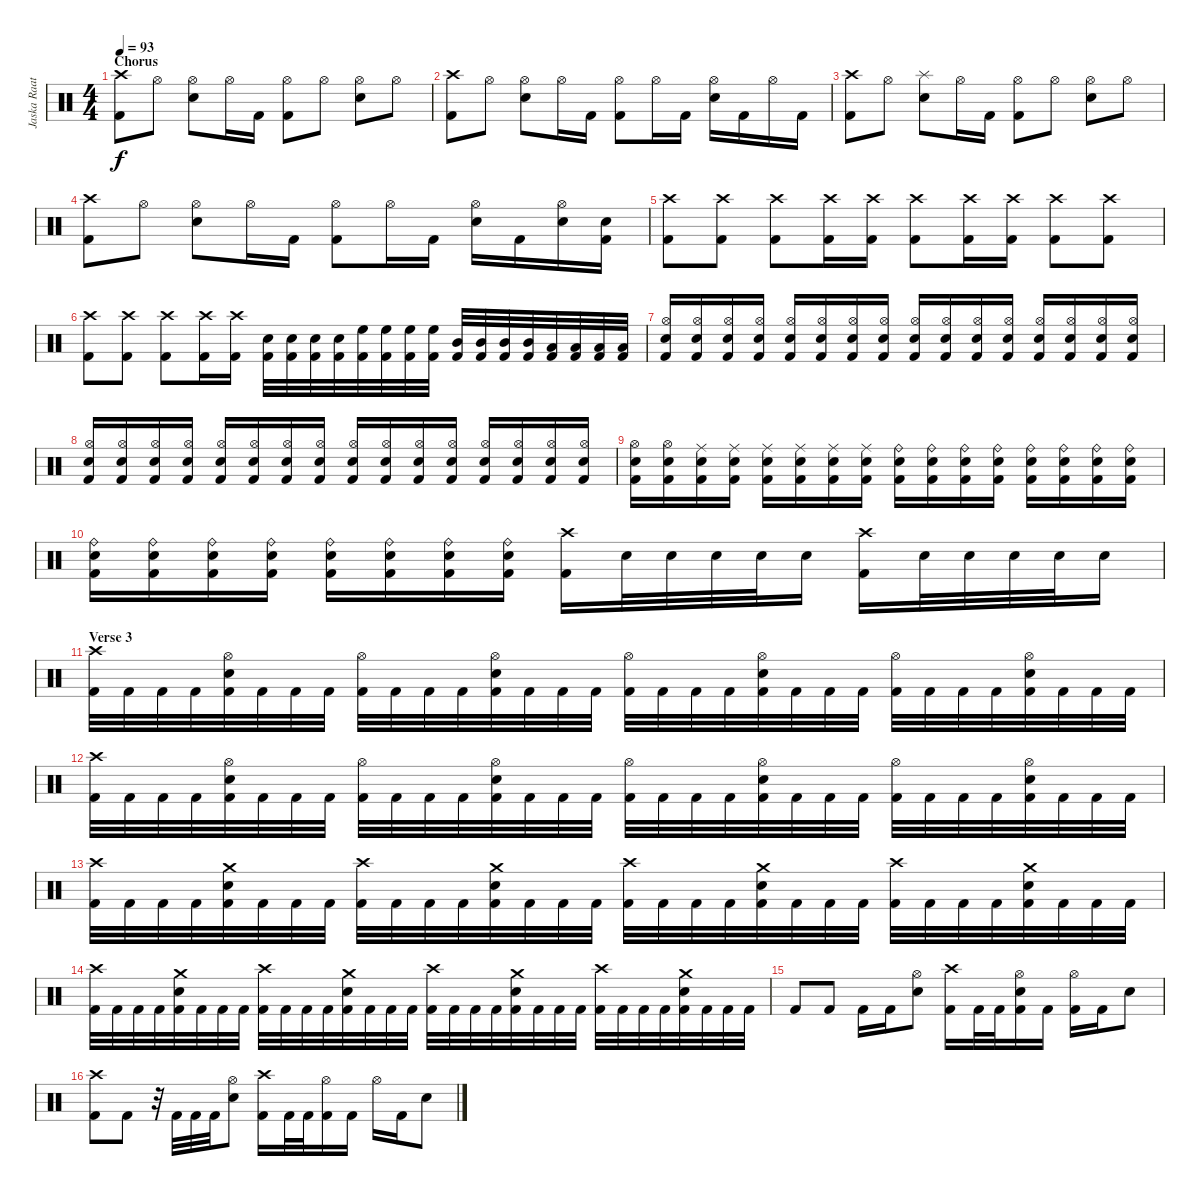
\track ("Jaska Raatikainen" "Jaska Raat") {instrument percussion}
\staff {score}
\articulation defaults
\ts (4 4)
\section ("" "Chorus")
\tempo 93
\clef neutral
\ks c
("Crash high (hit)" "Kick (hit) 2").8{dy f} "Hi-Hat (open)".8 ("Hi-Hat (open)" "Snare (hit) 2").8 "Hi-Hat (open)".16 "Kick (hit) 2".16 ("Hi-Hat (open)" "Kick (hit) 2").8 "Hi-Hat (open)".8 ("Hi-Hat (open)" "Snare (hit) 2").8 "Hi-Hat (open)".8 |
("Crash high (hit)" "Kick (hit) 2").8 "Hi-Hat (open)".8 ("Hi-Hat (open)" "Snare (hit) 2").8 "Hi-Hat (open)".16 "Kick (hit) 2".16 ("Hi-Hat (open)" "Kick (hit) 2").8 "Hi-Hat (open)".16 "Kick (hit) 2".16 ("Hi-Hat (open)" "Snare (hit) 2").16 "Kick (hit) 2".16 "Hi-Hat (open)".16 "Kick (hit) 2".16 |
("Crash high (hit)" "Kick (hit) 2").8 "Hi-Hat (open)".8 ("Splash (hit)" "Snare (hit) 2").8 "Hi-Hat (open)".16 "Kick (hit) 2".16 ("Hi-Hat (open)" "Kick (hit) 2").8 "Hi-Hat (open)".8 ("Hi-Hat (open)" "Snare (hit) 2").8 "Hi-Hat (open)".8 |
("Crash high (hit)" "Kick (hit) 2").8 "Hi-Hat (open)".8 ("Hi-Hat (open)" "Snare (hit) 2").8 "Hi-Hat (open)".16 "Kick (hit) 2".16 ("Hi-Hat (open)" "Kick (hit) 2").8 "Hi-Hat (open)".16 "Kick (hit) 2".16 ("Hi-Hat (open)" "Snare (hit) 2").16 "Kick (hit) 2".16 ("Hi-Hat (open)" "Snare (hit) 2").16 ("Snare (hit) 2" "Kick (hit) 2").16 |
("Crash high (hit)" "Kick (hit) 2").8 ("Crash high (hit)" "Kick (hit) 2").8 ("Crash high (hit)" "Kick (hit) 2").8 ("Crash high (hit)" "Kick (hit) 2").16 ("Crash high (hit)" "Kick (hit) 2").16 ("Crash high (hit)" "Kick (hit) 2").8 ("Crash high (hit)" "Kick (hit) 2").16 ("Crash high (hit)" "Kick (hit) 2").16 ("Crash high (hit)" "Kick (hit) 2").8 ("Crash high (hit)" "Kick (hit) 2").8 |
("Crash high (hit)" "Kick (hit) 2").8 ("Crash high (hit)" "Kick (hit) 2").8 ("Crash high (hit)" "Kick (hit) 2").8 ("Crash high (hit)" "Kick (hit) 2").16 ("Crash high (hit)" "Kick (hit) 2").16 ("Snare (hit) 2" "Kick (hit) 2").32 ("Snare (hit) 2" "Kick (hit) 2").32 ("Snare (hit) 2" "Kick (hit) 2").32 ("Snare (hit) 2" "Kick (hit) 2").32 ("High Floor Tom (hit)" "Kick (hit) 2").32 ("High Floor Tom (hit)" "Kick (hit) 2").32 ("High Floor Tom (hit)" "Kick (hit) 2").32 ("High Floor Tom (hit)" "Kick (hit) 2").32 ("Mid Tom (hit)" "Kick (hit) 2").32 ("Mid Tom (hit)" "Kick (hit) 2").32 ("Mid Tom (hit)" "Kick (hit) 2").32 ("Mid Tom (hit)" "Kick (hit) 2").32 ("Low Tom (hit)" "Kick (hit) 2").32 ("Low Tom (hit)" "Kick (hit) 2").32 ("Low Tom (hit)" "Kick (hit) 2").32 ("Low Tom (hit)" "Kick (hit) 2").32 |
("Hi-Hat (open)" "Snare (hit) 2" "Kick (hit) 2").16 ("Hi-Hat (open)" "Snare (hit) 2" "Kick (hit) 2").16 ("Hi-Hat (open)" "Snare (hit) 2" "Kick (hit) 2").16 ("Hi-Hat (open)" "Snare (hit) 2" "Kick (hit) 2").16 ("Hi-Hat (open)" "Snare (hit) 2" "Kick (hit) 2").16 ("Hi-Hat (open)" "Snare (hit) 2" "Kick (hit) 2").16 ("Hi-Hat (open)" "Snare (hit) 2" "Kick (hit) 2").16 ("Hi-Hat (open)" "Snare (hit) 2" "Kick (hit) 2").16 ("Hi-Hat (open)" "Snare (hit) 2" "Kick (hit) 2").16 ("Hi-Hat (open)" "Snare (hit) 2" "Kick (hit) 2").16 ("Hi-Hat (open)" "Snare (hit) 2" "Kick (hit) 2").16 ("Hi-Hat (open)" "Snare (hit) 2" "Kick (hit) 2").16 ("Hi-Hat (open)" "Snare (hit) 2" "Kick (hit) 2").16 ("Hi-Hat (open)" "Snare (hit) 2" "Kick (hit) 2").16 ("Hi-Hat (open)" "Snare (hit) 2" "Kick (hit) 2").16 ("Hi-Hat (open)" "Snare (hit) 2" "Kick (hit) 2").16 |
("Hi-Hat (open)" "Snare (hit) 2" "Kick (hit) 2").16 ("Hi-Hat (open)" "Snare (hit) 2" "Kick (hit) 2").16 ("Hi-Hat (open)" "Snare (hit) 2" "Kick (hit) 2").16 ("Hi-Hat (open)" "Snare (hit) 2" "Kick (hit) 2").16 ("Hi-Hat (open)" "Snare (hit) 2" "Kick (hit) 2").16 ("Hi-Hat (open)" "Snare (hit) 2" "Kick (hit) 2").16 ("Hi-Hat (open)" "Snare (hit) 2" "Kick (hit) 2").16 ("Hi-Hat (open)" "Snare (hit) 2" "Kick (hit) 2").16 ("Hi-Hat (open)" "Snare (hit) 2" "Kick (hit) 2").16 ("Hi-Hat (open)" "Snare (hit) 2" "Kick (hit) 2").16 ("Hi-Hat (open)" "Snare (hit) 2" "Kick (hit) 2").16 ("Hi-Hat (open)" "Snare (hit) 2" "Kick (hit) 2").16 ("Hi-Hat (open)" "Snare (hit) 2" "Kick (hit) 2").16 ("Hi-Hat (open)" "Snare (hit) 2" "Kick (hit) 2").16 ("Hi-Hat (open)" "Snare (hit) 2" "Kick (hit) 2").16 ("Hi-Hat (open)" "Snare (hit) 2" "Kick (hit) 2").16 |
("Hi-Hat (open)" "Snare (hit) 2" "Kick (hit) 2").16 ("Hi-Hat (open)" "Snare (hit) 2" "Kick (hit) 2").16 ("Ride (middle)" "Snare (hit) 2" "Kick (hit) 2").16 ("Ride (middle)" "Snare (hit) 2" "Kick (hit) 2").16 ("Ride (middle)" "Snare (hit) 2" "Kick (hit) 2").16 ("Ride (middle)" "Snare (hit) 2" "Kick (hit) 2").16 ("Ride (middle)" "Snare (hit) 2" "Kick (hit) 2").16 ("Ride (middle)" "Snare (hit) 2" "Kick (hit) 2").16 ("Ride (bell)" "Snare (hit) 2" "Kick (hit) 2").16 ("Ride (bell)" "Snare (hit) 2" "Kick (hit) 2").16 ("Ride (bell)" "Snare (hit) 2" "Kick (hit) 2").16 ("Ride (bell)" "Snare (hit) 2" "Kick (hit) 2").16 ("Ride (bell)" "Snare (hit) 2" "Kick (hit) 2").16 ("Ride (bell)" "Snare (hit) 2" "Kick (hit) 2").16 ("Ride (bell)" "Snare (hit) 2" "Kick (hit) 2").16 ("Ride (bell)" "Snare (hit) 2" "Kick (hit) 2").16 |
("Ride (bell)" "Snare (hit) 2" "Kick (hit) 2").16 ("Ride (bell)" "Snare (hit) 2" "Kick (hit) 2").16 ("Ride (bell)" "Snare (hit) 2" "Kick (hit) 2").16 ("Ride (bell)" "Snare (hit) 2" "Kick (hit) 2").16 ("Ride (bell)" "Snare (hit) 2" "Kick (hit) 2").16 ("Ride (bell)" "Snare (hit) 2" "Kick (hit) 2").16 ("Ride (bell)" "Snare (hit) 2" "Kick (hit) 2").16 ("Ride (bell)" "Snare (hit) 2" "Kick (hit) 2").16 ("Crash high (hit)" "Kick (hit) 2").16 "Snare (hit) 2".32 "Snare (hit) 2".32 "Snare (hit) 2".32 "Snare (hit) 2".32 "Snare (hit) 2".16 ("Crash high (hit)" "Kick (hit) 2").16 "Snare (hit) 2".32 "Snare (hit) 2".32 "Snare (hit) 2".32 "Snare (hit) 2".32 "Snare (hit) 2".16 |
\section ("" "Verse 3")
("Crash high (hit)" "Kick (hit) 2").32 "Kick (hit) 2".32 "Kick (hit) 2".32 "Kick (hit) 2".32 ("Hi-Hat (open)" "Snare (hit) 2" "Kick (hit) 2").32 "Kick (hit) 2".32 "Kick (hit) 2".32 "Kick (hit) 2".32 ("Hi-Hat (open)" "Kick (hit) 2").32 "Kick (hit) 2".32 "Kick (hit) 2".32 "Kick (hit) 2".32 ("Hi-Hat (open)" "Snare (hit) 2" "Kick (hit) 2").32 "Kick (hit) 2".32 "Kick (hit) 2".32 "Kick (hit) 2".32 ("Hi-Hat (open)" "Kick (hit) 2").32 "Kick (hit) 2".32 "Kick (hit) 2".32 "Kick (hit) 2".32 ("Hi-Hat (open)" "Snare (hit) 2" "Kick (hit) 2").32 "Kick (hit) 2".32 "Kick (hit) 2".32 "Kick (hit) 2".32 ("Hi-Hat (open)" "Kick (hit) 2").32 "Kick (hit) 2".32 "Kick (hit) 2".32 "Kick (hit) 2".32 ("Hi-Hat (open)" "Snare (hit) 2" "Kick (hit) 2").32 "Kick (hit) 2".32 "Kick (hit) 2".32 "Kick (hit) 2".32 |
("Crash high (hit)" "Kick (hit) 2").32 "Kick (hit) 2".32 "Kick (hit) 2".32 "Kick (hit) 2".32 ("Hi-Hat (open)" "Snare (hit) 2" "Kick (hit) 2").32 "Kick (hit) 2".32 "Kick (hit) 2".32 "Kick (hit) 2".32 ("Hi-Hat (open)" "Kick (hit) 2").32 "Kick (hit) 2".32 "Kick (hit) 2".32 "Kick (hit) 2".32 ("Hi-Hat (open)" "Snare (hit) 2" "Kick (hit) 2").32 "Kick (hit) 2".32 "Kick (hit) 2".32 "Kick (hit) 2".32 ("Hi-Hat (open)" "Kick (hit) 2").32 "Kick (hit) 2".32 "Kick (hit) 2".32 "Kick (hit) 2".32 ("Hi-Hat (open)" "Snare (hit) 2" "Kick (hit) 2").32 "Kick (hit) 2".32 "Kick (hit) 2".32 "Kick (hit) 2".32 ("Hi-Hat (open)" "Kick (hit) 2").32 "Kick (hit) 2".32 "Kick (hit) 2".32 "Kick (hit) 2".32 ("Hi-Hat (open)" "Snare (hit) 2" "Kick (hit) 2").32 "Kick (hit) 2".32 "Kick (hit) 2".32 "Kick (hit) 2".32 |
("Crash high (hit)" "Kick (hit) 2").32 "Kick (hit) 2".32 "Kick (hit) 2".32 "Kick (hit) 2".32 ("Crash medium (hit)" "Snare (hit) 2" "Kick (hit) 2").32 "Kick (hit) 2".32 "Kick (hit) 2".32 "Kick (hit) 2".32 ("Crash high (hit)" "Kick (hit) 2").32 "Kick (hit) 2".32 "Kick (hit) 2".32 "Kick (hit) 2".32 ("Crash medium (hit)" "Snare (hit) 2" "Kick (hit) 2").32 "Kick (hit) 2".32 "Kick (hit) 2".32 "Kick (hit) 2".32 ("Crash high (hit)" "Kick (hit) 2").32 "Kick (hit) 2".32 "Kick (hit) 2".32 "Kick (hit) 2".32 ("Crash medium (hit)" "Snare (hit) 2" "Kick (hit) 2").32 "Kick (hit) 2".32 "Kick (hit) 2".32 "Kick (hit) 2".32 ("Crash high (hit)" "Kick (hit) 2").32 "Kick (hit) 2".32 "Kick (hit) 2".32 "Kick (hit) 2".32 ("Crash medium (hit)" "Snare (hit) 2" "Kick (hit) 2").32 "Kick (hit) 2".32 "Kick (hit) 2".32 "Kick (hit) 2".32 |
("Crash high (hit)" "Kick (hit) 2").32 "Kick (hit) 2".32 "Kick (hit) 2".32 "Kick (hit) 2".32 ("Crash medium (hit)" "Snare (hit) 2" "Kick (hit) 2").32 "Kick (hit) 2".32 "Kick (hit) 2".32 "Kick (hit) 2".32 ("Crash high (hit)" "Kick (hit) 2").32 "Kick (hit) 2".32 "Kick (hit) 2".32 "Kick (hit) 2".32 ("Crash medium (hit)" "Snare (hit) 2" "Kick (hit) 2").32 "Kick (hit) 2".32 "Kick (hit) 2".32 "Kick (hit) 2".32 ("Crash high (hit)" "Kick (hit) 2").32 "Kick (hit) 2".32 "Kick (hit) 2".32 "Kick (hit) 2".32 ("Crash medium (hit)" "Snare (hit) 2" "Kick (hit) 2").32 "Kick (hit) 2".32 "Kick (hit) 2".32 "Kick (hit) 2".32 ("Crash high (hit)" "Kick (hit) 2").32 "Kick (hit) 2".32 "Kick (hit) 2".32 "Kick (hit) 2".32 ("Crash medium (hit)" "Snare (hit) 2" "Kick (hit) 2").32 "Kick (hit) 2".32 "Kick (hit) 2".32 "Kick (hit) 2".32 |
"Kick (hit) 2".8 "Kick (hit) 2".8 "Kick (hit) 2".16 "Kick (hit) 2".16 ("Hi-Hat (open)" "Snare (hit) 2").8 ("Crash high (hit)" "Kick (hit) 2").16 "Kick (hit) 2".32 "Kick (hit) 2".32 ("Hi-Hat (open)" "Snare (hit) 2" "Kick (hit) 2").16 "Kick (hit) 2".16 ("Hi-Hat (open)" "Kick (hit) 2").16 "Kick (hit) 2".16 "Snare (hit) 2".8 |
("Crash high (hit)" "Kick (hit) 2").8 "Kick (hit) 2".8 r.32 "Kick (hit) 2".32 "Kick (hit) 2".32 "Kick (hit) 2".32 ("Hi-Hat (open)" "Snare (hit) 2").8 ("Crash high (hit)" "Kick (hit) 2").16 "Kick (hit) 2".32 "Kick (hit) 2".32 ("Hi-Hat (open)" "Kick (hit) 2").16 "Kick (hit) 2".16 "Hi-Hat (open)".16 "Kick (hit) 2".16 "Snare (hit) 2".8
